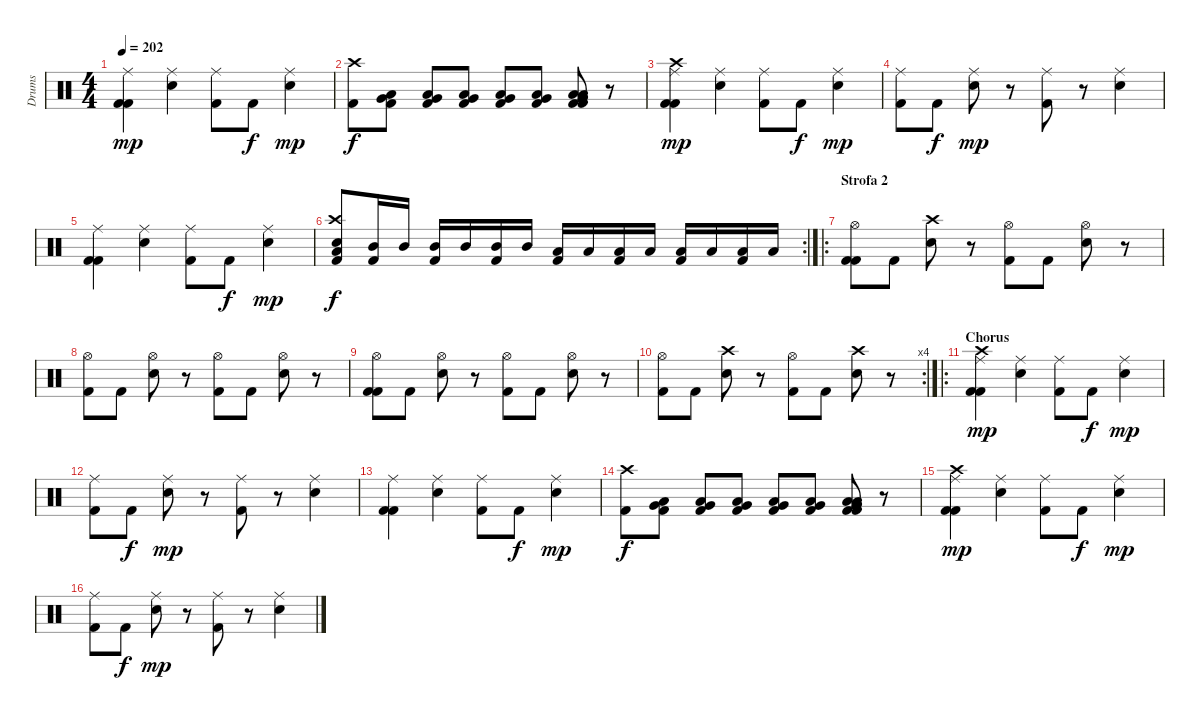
\track ("Drums" "Drums") {instrument percussion}
\staff {score}
\articulation defaults
\ts (4 4)
\tempo 202
\clef neutral
\ks c
("Ride (middle)" "Kick (hit) 2" "Kick (hit) 2").4{dy mp} ("Ride (middle)" "Electric Snare (hit)").4 ("Ride (middle)" "Kick (hit) 2").8 "Kick (hit) 2".8{dy f} ("Ride (middle)" "Electric Snare (hit)").4{dy mp} |
("Crash high (hit)" "Kick (hit) 2").8{dy f} ("Low Tom (hit)" "Very Low Tom (hit)" "Kick (hit) 2").8 ("Low Tom (hit)" "Very Low Tom (hit)" "Kick (hit) 2").8 ("Low Tom (hit)" "Very Low Tom (hit)" "Kick (hit) 2").8 ("Low Tom (hit)" "Very Low Tom (hit)" "Kick (hit) 2").8 ("Low Tom (hit)" "Very Low Tom (hit)" "Kick (hit) 2").8 ("Low Tom (hit)" "Low Tom (hit)" "Very Low Tom (hit)" "Very Low Tom (hit)" "Kick (hit) 2" "Kick (hit) 2").8 r.8 |
("Crash high (hit)" "Ride (middle)" "Kick (hit) 2" "Kick (hit) 2").4{dy mp} ("Ride (middle)" "Electric Snare (hit)").4 ("Ride (middle)" "Kick (hit) 2").8 "Kick (hit) 2".8{dy f} ("Ride (middle)" "Electric Snare (hit)").4{dy mp} |
("Ride (middle)" "Kick (hit) 2").8 "Kick (hit) 2".8{dy f} ("Ride (middle)" "Electric Snare (hit)").8{dy mp} r.8 ("Ride (middle)" "Kick (hit) 2").8 r.8 ("Ride (middle)" "Electric Snare (hit)").4 |
("Ride (middle)" "Kick (hit) 2" "Kick (hit) 2").4 ("Ride (middle)" "Electric Snare (hit)").4 ("Ride (middle)" "Kick (hit) 2").8 "Kick (hit) 2".8{dy f} ("Ride (middle)" "Electric Snare (hit)").4{dy mp} |
\rc 2
("Crash high (hit)" "Low Tom (hit)" "Electric Snare (hit)" "Kick (hit) 2").8{dy f} ("Mid Tom (hit)" "Kick (hit) 2").16 "Mid Tom (hit)".16 ("Mid Tom (hit)" "Kick (hit) 2").16 "Mid Tom (hit)".16 ("Mid Tom (hit)" "Kick (hit) 2").16 "Mid Tom (hit)".16 ("Low Tom (hit)" "Kick (hit) 2").16 "Low Tom (hit)".16 ("Low Tom (hit)" "Kick (hit) 2").16 "Low Tom (hit)".16 ("Low Tom (hit)" "Kick (hit) 2").16 "Low Tom (hit)".16 ("Low Tom (hit)" "Kick (hit) 2").16 "Low Tom (hit)".16 |
\ro
\section ("" "Strofa 2")
("Hi-Hat (open)" "Kick (hit) 2" "Kick (hit) 2").8 "Kick (hit) 2".8 ("Crash high (hit)" "Electric Snare (hit)").8 r.8 ("Hi-Hat (open)" "Kick (hit) 2").8 "Kick (hit) 2".8 ("Hi-Hat (open)" "Electric Snare (hit)").8 r.8 |
("Hi-Hat (open)" "Kick (hit) 2").8 "Kick (hit) 2".8 ("Hi-Hat (open)" "Electric Snare (hit)").8 r.8 ("Hi-Hat (open)" "Kick (hit) 2").8 "Kick (hit) 2".8 ("Hi-Hat (open)" "Electric Snare (hit)").8 r.8 |
("Hi-Hat (open)" "Kick (hit) 2" "Kick (hit) 2").8 "Kick (hit) 2".8 ("Hi-Hat (open)" "Electric Snare (hit)").8 r.8 ("Hi-Hat (open)" "Kick (hit) 2").8 "Kick (hit) 2".8 ("Hi-Hat (open)" "Electric Snare (hit)").8 r.8 |
\rc 4
("Hi-Hat (open)" "Kick (hit) 2").8 "Kick (hit) 2".8 ("Crash high (hit)" "Electric Snare (hit)").8 r.8 ("Hi-Hat (open)" "Kick (hit) 2").8 "Kick (hit) 2".8 ("Crash high (hit)" "Electric Snare (hit)").8 r.8 |
\ro
\section ("" "Chorus")
("Crash high (hit)" "Ride (middle)" "Kick (hit) 2" "Kick (hit) 2").4{dy mp} ("Ride (middle)" "Electric Snare (hit)").4 ("Ride (middle)" "Kick (hit) 2").8 "Kick (hit) 2".8{dy f} ("Ride (middle)" "Electric Snare (hit)").4{dy mp} |
("Ride (middle)" "Kick (hit) 2").8 "Kick (hit) 2".8{dy f} ("Ride (middle)" "Electric Snare (hit)").8{dy mp} r.8 ("Ride (middle)" "Kick (hit) 2").8 r.8 ("Ride (middle)" "Electric Snare (hit)").4 |
("Ride (middle)" "Kick (hit) 2" "Kick (hit) 2").4 ("Ride (middle)" "Electric Snare (hit)").4 ("Ride (middle)" "Kick (hit) 2").8 "Kick (hit) 2".8{dy f} ("Ride (middle)" "Electric Snare (hit)").4{dy mp} |
("Crash high (hit)" "Kick (hit) 2").8{dy f} ("Low Tom (hit)" "Very Low Tom (hit)" "Kick (hit) 2").8 ("Low Tom (hit)" "Very Low Tom (hit)" "Kick (hit) 2").8 ("Low Tom (hit)" "Very Low Tom (hit)" "Kick (hit) 2").8 ("Low Tom (hit)" "Very Low Tom (hit)" "Kick (hit) 2").8 ("Low Tom (hit)" "Very Low Tom (hit)" "Kick (hit) 2").8 ("Low Tom (hit)" "Low Tom (hit)" "Very Low Tom (hit)" "Very Low Tom (hit)" "Kick (hit) 2" "Kick (hit) 2").8 r.8 |
("Crash high (hit)" "Ride (middle)" "Kick (hit) 2" "Kick (hit) 2").4{dy mp} ("Ride (middle)" "Electric Snare (hit)").4 ("Ride (middle)" "Kick (hit) 2").8 "Kick (hit) 2".8{dy f} ("Ride (middle)" "Electric Snare (hit)").4{dy mp} |
("Ride (middle)" "Kick (hit) 2").8 "Kick (hit) 2".8{dy f} ("Ride (middle)" "Electric Snare (hit)").8{dy mp} r.8 ("Ride (middle)" "Kick (hit) 2").8 r.8 ("Ride (middle)" "Electric Snare (hit)").4
